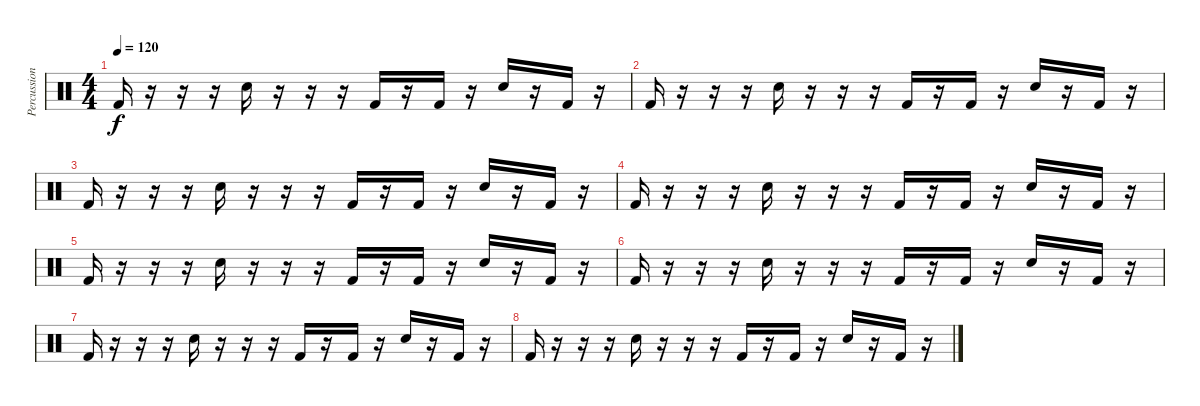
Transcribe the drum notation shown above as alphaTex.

\track ("Percussion" "Percussion") {instrument percussion}
\staff {score}
\articulation defaults
\ts (4 4)
\tempo 120
\clef neutral
\ks c "Kick (hit) 2".16{dy f}
r.16 r.16 r.16 "Snare (hit) 2".16 r.16 r.16 r.16 "Kick (hit) 2".16 r.16 "Kick (hit) 2".16 r.16 "Snare (hit) 2".16 r.16 "Kick (hit) 2".16 r.16 |
"Kick (hit) 2".16 r.16 r.16 r.16 "Snare (hit) 2".16 r.16 r.16 r.16 "Kick (hit) 2".16 r.16 "Kick (hit) 2".16 r.16 "Snare (hit) 2".16 r.16 "Kick (hit) 2".16 r.16 |
"Kick (hit) 2".16 r.16 r.16 r.16 "Snare (hit) 2".16 r.16 r.16 r.16 "Kick (hit) 2".16 r.16 "Kick (hit) 2".16 r.16 "Snare (hit) 2".16 r.16 "Kick (hit) 2".16 r.16 |
"Kick (hit) 2".16 r.16 r.16 r.16 "Snare (hit) 2".16 r.16 r.16 r.16 "Kick (hit) 2".16 r.16 "Kick (hit) 2".16 r.16 "Snare (hit) 2".16 r.16 "Kick (hit) 2".16 r.16 |
"Kick (hit) 2".16 r.16 r.16 r.16 "Snare (hit) 2".16 r.16 r.16 r.16 "Kick (hit) 2".16 r.16 "Kick (hit) 2".16 r.16 "Snare (hit) 2".16 r.16 "Kick (hit) 2".16 r.16 |
"Kick (hit) 2".16 r.16 r.16 r.16 "Snare (hit) 2".16 r.16 r.16 r.16 "Kick (hit) 2".16 r.16 "Kick (hit) 2".16 r.16 "Snare (hit) 2".16 r.16 "Kick (hit) 2".16 r.16 |
"Kick (hit) 2".16 r.16 r.16 r.16 "Snare (hit) 2".16 r.16 r.16 r.16 "Kick (hit) 2".16 r.16 "Kick (hit) 2".16 r.16 "Snare (hit) 2".16 r.16 "Kick (hit) 2".16 r.16 |
"Kick (hit) 2".16 r.16 r.16 r.16 "Snare (hit) 2".16 r.16 r.16 r.16 "Kick (hit) 2".16 r.16 "Kick (hit) 2".16 r.16 "Snare (hit) 2".16 r.16 "Kick (hit) 2".16 r.16
